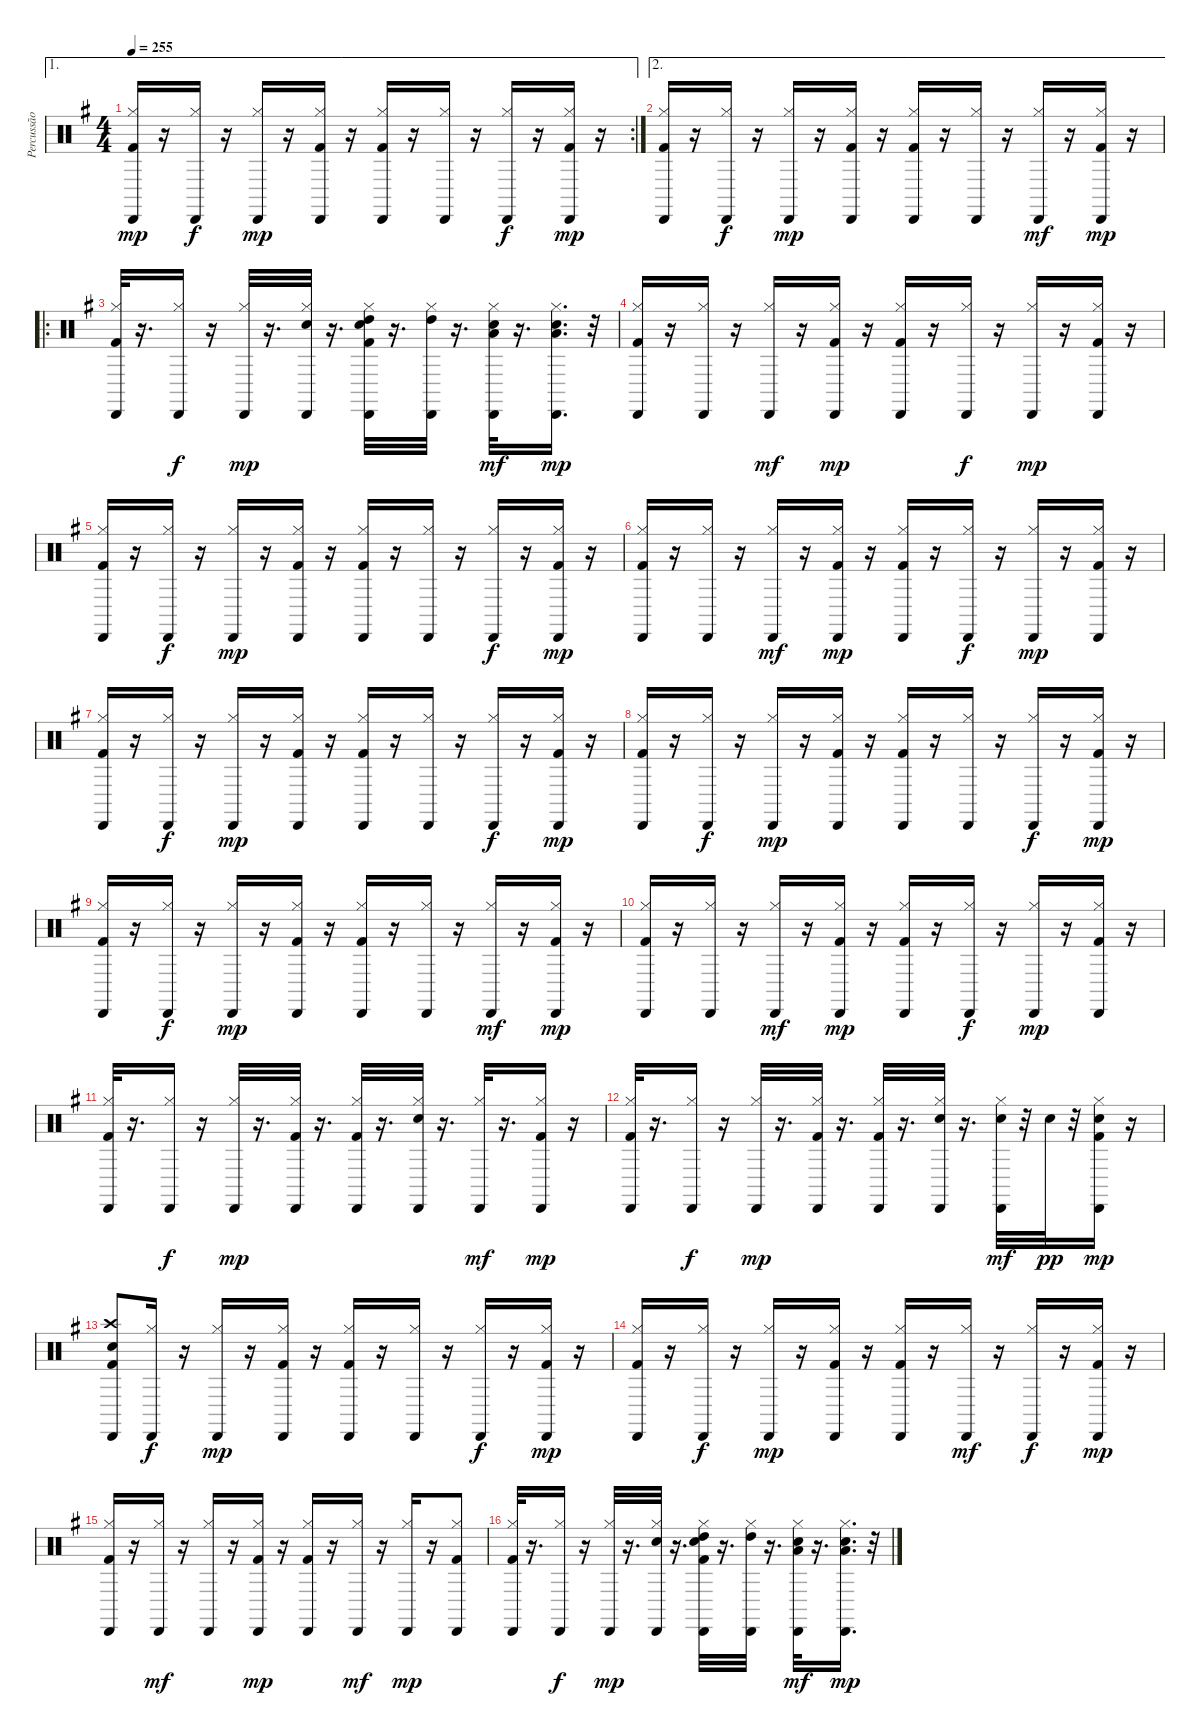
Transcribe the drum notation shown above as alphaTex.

\track ("Percussão" "Percussão") {instrument percussion}
\staff {score}
\articulation defaults
\ae 1
\rc 2
\ts (4 4)
\tempo 255
\clef neutral
\ks g
("Kick (hit) 2" "Hi-Hat (closed)" "Cabasa (hit)").16{dy mp} r.16 ("Hi-Hat (closed)" "Cabasa (hit)").16{dy f} r.16 ("Hi-Hat (closed)" "Cabasa (hit)").16{dy mp} r.16 ("Kick (hit) 2" "Hi-Hat (closed)" "Cabasa (hit)").16 r.16 ("Kick (hit) 2" "Hi-Hat (closed)" "Cabasa (hit)").16 r.16 ("Hi-Hat (closed)" "Cabasa (hit)").16 r.16 ("Hi-Hat (closed)" "Cabasa (hit)").16{dy f} r.16 ("Kick (hit) 2" "Hi-Hat (closed)" "Cabasa (hit)").16{dy mp} r.16 |
\ae 2
("Kick (hit) 2" "Hi-Hat (closed)" "Cabasa (hit)").16 r.16 ("Hi-Hat (closed)" "Cabasa (hit)").16{dy f} r.16 ("Hi-Hat (closed)" "Cabasa (hit)").16{dy mp} r.16 ("Kick (hit) 2" "Hi-Hat (closed)" "Cabasa (hit)").16 r.16 ("Kick (hit) 2" "Hi-Hat (closed)" "Cabasa (hit)").16 r.16 ("Hi-Hat (closed)" "Cabasa (hit)").16 r.16 ("Hi-Hat (closed)" "Cabasa (hit)").16{dy mf} r.16 ("Kick (hit) 2" "Hi-Hat (closed)" "Cabasa (hit)").16{dy mp} r.16 |
\ro
("Kick (hit) 2" "Hi-Hat (closed)" "Cabasa (hit)").32 r.16{d} ("Hi-Hat (closed)" "Cabasa (hit)").16{dy f} r.16 ("Hi-Hat (closed)" "Cabasa (hit)").32{dy mp} r.16{d} ("Electric Snare (hit)" "Hi-Hat (closed)" "Cabasa (hit)").32 r.16{d} ("High Tom (hit)" "Electric Snare (hit)" "Kick (hit) 2" "Hi-Hat (closed)" "Cabasa (hit)").32 r.16{d} ("High Tom (hit)" "Hi-Hat (closed)" "Cabasa (hit)").32 r.16{d} ("Low Tom (hit)" "Electric Snare (hit)" "Hi-Hat (closed)" "Cabasa (hit)").32{dy mf} r.16{d} ("Low Tom (hit)" "Electric Snare (hit)" "Hi-Hat (closed)" "Cabasa (hit)").16{d dy mp} r.32 |
("Kick (hit) 2" "Hi-Hat (closed)" "Cabasa (hit)").16 r.16 ("Hi-Hat (closed)" "Cabasa (hit)").16 r.16 ("Hi-Hat (closed)" "Cabasa (hit)").16{dy mf} r.16 ("Kick (hit) 2" "Hi-Hat (closed)" "Cabasa (hit)").16{dy mp} r.16 ("Kick (hit) 2" "Hi-Hat (closed)" "Cabasa (hit)").16 r.16 ("Hi-Hat (closed)" "Cabasa (hit)").16{dy f} r.16 ("Hi-Hat (closed)" "Cabasa (hit)").16{dy mp} r.16 ("Kick (hit) 2" "Hi-Hat (closed)" "Cabasa (hit)").16 r.16 |
("Kick (hit) 2" "Hi-Hat (closed)" "Cabasa (hit)").16 r.16 ("Hi-Hat (closed)" "Cabasa (hit)").16{dy f} r.16 ("Hi-Hat (closed)" "Cabasa (hit)").16{dy mp} r.16 ("Kick (hit) 2" "Hi-Hat (closed)" "Cabasa (hit)").16 r.16 ("Kick (hit) 2" "Hi-Hat (closed)" "Cabasa (hit)").16 r.16 ("Hi-Hat (closed)" "Cabasa (hit)").16 r.16 ("Hi-Hat (closed)" "Cabasa (hit)").16{dy f} r.16 ("Kick (hit) 2" "Hi-Hat (closed)" "Cabasa (hit)").16{dy mp} r.16 |
("Kick (hit) 2" "Hi-Hat (closed)" "Cabasa (hit)").16 r.16 ("Hi-Hat (closed)" "Cabasa (hit)").16 r.16 ("Hi-Hat (closed)" "Cabasa (hit)").16{dy mf} r.16 ("Kick (hit) 2" "Hi-Hat (closed)" "Cabasa (hit)").16{dy mp} r.16 ("Kick (hit) 2" "Hi-Hat (closed)" "Cabasa (hit)").16 r.16 ("Hi-Hat (closed)" "Cabasa (hit)").16{dy f} r.16 ("Hi-Hat (closed)" "Cabasa (hit)").16{dy mp} r.16 ("Kick (hit) 2" "Hi-Hat (closed)" "Cabasa (hit)").16 r.16 |
("Kick (hit) 2" "Hi-Hat (closed)" "Cabasa (hit)").16 r.16 ("Hi-Hat (closed)" "Cabasa (hit)").16{dy f} r.16 ("Hi-Hat (closed)" "Cabasa (hit)").16{dy mp} r.16 ("Kick (hit) 2" "Hi-Hat (closed)" "Cabasa (hit)").16 r.16 ("Kick (hit) 2" "Hi-Hat (closed)" "Cabasa (hit)").16 r.16 ("Hi-Hat (closed)" "Cabasa (hit)").16 r.16 ("Hi-Hat (closed)" "Cabasa (hit)").16{dy f} r.16 ("Kick (hit) 2" "Hi-Hat (closed)" "Cabasa (hit)").16{dy mp} r.16 |
("Kick (hit) 2" "Hi-Hat (closed)" "Cabasa (hit)").16 r.16 ("Hi-Hat (closed)" "Cabasa (hit)").16{dy f} r.16 ("Hi-Hat (closed)" "Cabasa (hit)").16{dy mp} r.16 ("Kick (hit) 2" "Hi-Hat (closed)" "Cabasa (hit)").16 r.16 ("Kick (hit) 2" "Hi-Hat (closed)" "Cabasa (hit)").16 r.16 ("Hi-Hat (closed)" "Cabasa (hit)").16 r.16 ("Hi-Hat (closed)" "Cabasa (hit)").16{dy f} r.16 ("Kick (hit) 2" "Hi-Hat (closed)" "Cabasa (hit)").16{dy mp} r.16 |
("Kick (hit) 2" "Hi-Hat (closed)" "Cabasa (hit)").16 r.16 ("Hi-Hat (closed)" "Cabasa (hit)").16{dy f} r.16 ("Hi-Hat (closed)" "Cabasa (hit)").16{dy mp} r.16 ("Kick (hit) 2" "Hi-Hat (closed)" "Cabasa (hit)").16 r.16 ("Kick (hit) 2" "Hi-Hat (closed)" "Cabasa (hit)").16 r.16 ("Hi-Hat (closed)" "Cabasa (hit)").16 r.16 ("Hi-Hat (closed)" "Cabasa (hit)").16{dy mf} r.16 ("Kick (hit) 2" "Hi-Hat (closed)" "Cabasa (hit)").16{dy mp} r.16 |
("Kick (hit) 2" "Hi-Hat (closed)" "Cabasa (hit)").16 r.16 ("Hi-Hat (closed)" "Cabasa (hit)").16 r.16 ("Hi-Hat (closed)" "Cabasa (hit)").16{dy mf} r.16 ("Kick (hit) 2" "Hi-Hat (closed)" "Cabasa (hit)").16{dy mp} r.16 ("Kick (hit) 2" "Hi-Hat (closed)" "Cabasa (hit)").16 r.16 ("Hi-Hat (closed)" "Cabasa (hit)").16{dy f} r.16 ("Hi-Hat (closed)" "Cabasa (hit)").16{dy mp} r.16 ("Kick (hit) 2" "Hi-Hat (closed)" "Cabasa (hit)").16 r.16 |
("Kick (hit) 2" "Hi-Hat (closed)" "Cabasa (hit)").32 r.16{d} ("Hi-Hat (closed)" "Cabasa (hit)").16{dy f} r.16 ("Hi-Hat (closed)" "Cabasa (hit)").32{dy mp} r.16{d} ("Kick (hit) 2" "Hi-Hat (closed)" "Cabasa (hit)").32 r.16{d} ("Kick (hit) 2" "Hi-Hat (closed)" "Cabasa (hit)").32 r.16{d} ("Electric Snare (hit)" "Hi-Hat (closed)" "Cabasa (hit)").32 r.16{d} ("Hi-Hat (closed)" "Cabasa (hit)").32{dy mf} r.16{d} ("Kick (hit) 2" "Hi-Hat (closed)" "Cabasa (hit)").16{dy mp} r.16 |
("Kick (hit) 2" "Hi-Hat (closed)" "Cabasa (hit)").32 r.16{d} ("Hi-Hat (closed)" "Cabasa (hit)").16{dy f} r.16 ("Hi-Hat (closed)" "Cabasa (hit)").32{dy mp} r.16{d} ("Kick (hit) 2" "Hi-Hat (closed)" "Cabasa (hit)").32 r.16{d} ("Kick (hit) 2" "Hi-Hat (closed)" "Cabasa (hit)").32 r.16{d} ("Electric Snare (hit)" "Hi-Hat (closed)" "Cabasa (hit)").32 r.16{d} ("Electric Snare (hit)" "Hi-Hat (closed)" "Cabasa (hit)").32{dy mf} r.32 "Snare (hit) 2".32{dy pp} r.32 ("Electric Snare (hit)" "Kick (hit) 2" "Hi-Hat (closed)" "Cabasa (hit)").16{dy mp} r.16 |
("Electric Snare (hit)" "Crash high (hit)" "Kick (hit) 2" "Cabasa (hit)").8 ("Hi-Hat (closed)" "Cabasa (hit)").16{dy f} r.16 ("Hi-Hat (closed)" "Cabasa (hit)").16{dy mp} r.16 ("Kick (hit) 2" "Hi-Hat (closed)" "Cabasa (hit)").16 r.16 ("Kick (hit) 2" "Hi-Hat (closed)" "Cabasa (hit)").16 r.16 ("Hi-Hat (closed)" "Cabasa (hit)").16 r.16 ("Hi-Hat (closed)" "Cabasa (hit)").16{dy f} r.16 ("Kick (hit) 2" "Hi-Hat (closed)" "Cabasa (hit)").16{dy mp} r.16 |
("Kick (hit) 2" "Hi-Hat (closed)" "Cabasa (hit)").16 r.16 ("Hi-Hat (closed)" "Cabasa (hit)").16{dy f} r.16 ("Hi-Hat (closed)" "Cabasa (hit)").16{dy mp} r.16 ("Kick (hit) 2" "Hi-Hat (closed)" "Cabasa (hit)").16 r.16 ("Kick (hit) 2" "Hi-Hat (closed)" "Cabasa (hit)").16 r.16 ("Hi-Hat (closed)" "Cabasa (hit)").16{dy mf} r.16 ("Hi-Hat (closed)" "Cabasa (hit)").16{dy f} r.16 ("Kick (hit) 2" "Hi-Hat (closed)" "Cabasa (hit)").16{dy mp} r.16 |
("Kick (hit) 2" "Hi-Hat (closed)" "Cabasa (hit)").16 r.16 ("Hi-Hat (closed)" "Cabasa (hit)").16{dy mf} r.16 ("Hi-Hat (closed)" "Cabasa (hit)").16 r.16 ("Kick (hit) 2" "Hi-Hat (closed)" "Cabasa (hit)").16{dy mp} r.16 ("Kick (hit) 2" "Hi-Hat (closed)" "Cabasa (hit)").16 r.16 ("Hi-Hat (closed)" "Cabasa (hit)").16{dy mf} r.16 ("Hi-Hat (closed)" "Cabasa (hit)").16{dy mp} r.16 ("Kick (hit) 2" "Hi-Hat (closed)" "Cabasa (hit)").8 |
("Kick (hit) 2" "Hi-Hat (closed)" "Cabasa (hit)").32 r.16{d} ("Hi-Hat (closed)" "Cabasa (hit)").16{dy f} r.16 ("Hi-Hat (closed)" "Cabasa (hit)").32{dy mp} r.16{d} ("Electric Snare (hit)" "Hi-Hat (closed)" "Cabasa (hit)").32 r.16{d} ("High Tom (hit)" "Electric Snare (hit)" "Kick (hit) 2" "Hi-Hat (closed)" "Cabasa (hit)").32 r.16{d} ("High Tom (hit)" "Hi-Hat (closed)" "Cabasa (hit)").32 r.16{d} ("Low Tom (hit)" "Electric Snare (hit)" "Hi-Hat (closed)" "Cabasa (hit)").32{dy mf} r.16{d} ("Low Tom (hit)" "Electric Snare (hit)" "Hi-Hat (closed)" "Cabasa (hit)").16{d dy mp} r.32
